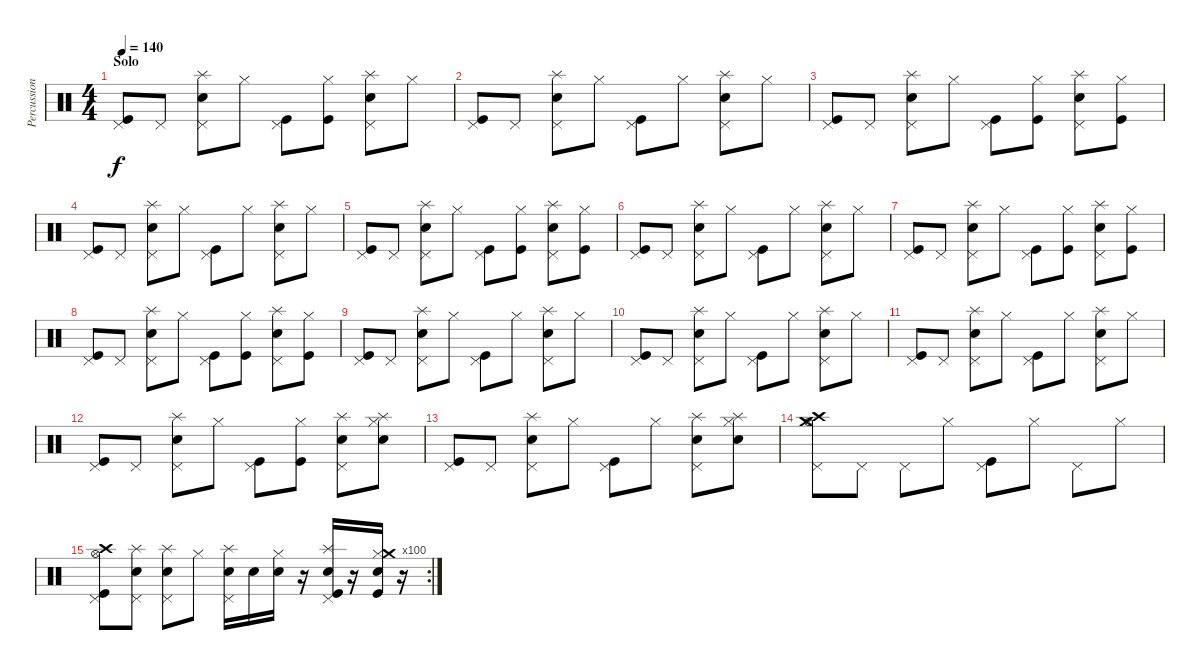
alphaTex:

\track ("Percussion" "Percussion") {instrument percussion}
\staff {score}
\articulation defaults
\ts (4 4)
\section ("" "Solo")
\tempo 140
\clef neutral
\ks c
("Pedal Hi-Hat (hit)" "Kick (hit)").8{dy f} "Pedal Hi-Hat (hit)".8 ("Pedal Hi-Hat (hit)" "Splash (hit)" "Electric Snare (hit)").8 "Hi-Hat (closed)".8 ("Pedal Hi-Hat (hit)" "Kick (hit)").8 ("Hi-Hat (closed)" "Kick (hit)").8 ("Pedal Hi-Hat (hit)" "Splash (hit)" "Electric Snare (hit)").8 "Hi-Hat (closed)".8 |
("Pedal Hi-Hat (hit)" "Kick (hit)").8 "Pedal Hi-Hat (hit)".8 ("Pedal Hi-Hat (hit)" "Splash (hit)" "Electric Snare (hit)").8 "Hi-Hat (closed)".8 ("Pedal Hi-Hat (hit)" "Kick (hit)").8 "Hi-Hat (closed)".8 ("Pedal Hi-Hat (hit)" "Splash (hit)" "Electric Snare (hit)").8 "Hi-Hat (closed)".8 |
("Pedal Hi-Hat (hit)" "Kick (hit)").8 "Pedal Hi-Hat (hit)".8 ("Pedal Hi-Hat (hit)" "Splash (hit)" "Electric Snare (hit)").8 "Hi-Hat (closed)".8 ("Pedal Hi-Hat (hit)" "Kick (hit)").8 ("Hi-Hat (closed)" "Kick (hit)").8 ("Pedal Hi-Hat (hit)" "Splash (hit)" "Electric Snare (hit)").8 ("Hi-Hat (closed)" "Kick (hit)").8 |
("Pedal Hi-Hat (hit)" "Kick (hit)").8 "Pedal Hi-Hat (hit)".8 ("Pedal Hi-Hat (hit)" "Splash (hit)" "Electric Snare (hit)").8 "Hi-Hat (closed)".8 ("Pedal Hi-Hat (hit)" "Kick (hit)").8 "Hi-Hat (closed)".8 ("Pedal Hi-Hat (hit)" "Splash (hit)" "Electric Snare (hit)").8 "Hi-Hat (closed)".8 |
("Pedal Hi-Hat (hit)" "Kick (hit)").8 "Pedal Hi-Hat (hit)".8 ("Pedal Hi-Hat (hit)" "Splash (hit)" "Electric Snare (hit)").8 "Hi-Hat (closed)".8 ("Pedal Hi-Hat (hit)" "Kick (hit)").8 ("Hi-Hat (closed)" "Kick (hit)").8 ("Pedal Hi-Hat (hit)" "Splash (hit)" "Electric Snare (hit)").8 ("Hi-Hat (closed)" "Kick (hit)").8 |
("Pedal Hi-Hat (hit)" "Kick (hit)").8 "Pedal Hi-Hat (hit)".8 ("Pedal Hi-Hat (hit)" "Splash (hit)" "Electric Snare (hit)").8 "Hi-Hat (closed)".8 ("Pedal Hi-Hat (hit)" "Kick (hit)").8 "Hi-Hat (closed)".8 ("Pedal Hi-Hat (hit)" "Splash (hit)" "Electric Snare (hit)").8 "Hi-Hat (closed)".8 |
("Pedal Hi-Hat (hit)" "Kick (hit)").8 "Pedal Hi-Hat (hit)".8 ("Pedal Hi-Hat (hit)" "Splash (hit)" "Electric Snare (hit)").8 "Hi-Hat (closed)".8 ("Pedal Hi-Hat (hit)" "Kick (hit)").8 ("Hi-Hat (closed)" "Kick (hit)").8 ("Pedal Hi-Hat (hit)" "Splash (hit)" "Electric Snare (hit)").8 ("Hi-Hat (closed)" "Kick (hit)").8 |
("Pedal Hi-Hat (hit)" "Kick (hit)").8 "Pedal Hi-Hat (hit)".8 ("Pedal Hi-Hat (hit)" "Splash (hit)" "Electric Snare (hit)").8 "Hi-Hat (closed)".8 ("Pedal Hi-Hat (hit)" "Kick (hit)").8 ("Hi-Hat (closed)" "Kick (hit)").8 ("Pedal Hi-Hat (hit)" "Splash (hit)" "Electric Snare (hit)").8 ("Hi-Hat (closed)" "Kick (hit)").8 |
("Pedal Hi-Hat (hit)" "Kick (hit)").8 "Pedal Hi-Hat (hit)".8 ("Pedal Hi-Hat (hit)" "Splash (hit)" "Electric Snare (hit)").8 "Hi-Hat (closed)".8 ("Pedal Hi-Hat (hit)" "Kick (hit)").8 "Hi-Hat (closed)".8 ("Pedal Hi-Hat (hit)" "Splash (hit)" "Electric Snare (hit)").8 "Hi-Hat (closed)".8 |
("Pedal Hi-Hat (hit)" "Kick (hit)").8 "Pedal Hi-Hat (hit)".8 ("Pedal Hi-Hat (hit)" "Splash (hit)" "Electric Snare (hit)").8 "Hi-Hat (closed)".8 ("Pedal Hi-Hat (hit)" "Kick (hit)").8 "Hi-Hat (closed)".8 ("Pedal Hi-Hat (hit)" "Splash (hit)" "Electric Snare (hit)").8 "Hi-Hat (closed)".8 |
("Pedal Hi-Hat (hit)" "Kick (hit)").8 "Pedal Hi-Hat (hit)".8 ("Pedal Hi-Hat (hit)" "Splash (hit)" "Electric Snare (hit)").8 "Hi-Hat (closed)".8 ("Pedal Hi-Hat (hit)" "Kick (hit)").8 "Hi-Hat (closed)".8 ("Pedal Hi-Hat (hit)" "Splash (hit)" "Electric Snare (hit)").8 "Hi-Hat (closed)".8 |
("Pedal Hi-Hat (hit)" "Kick (hit)").8 "Pedal Hi-Hat (hit)".8 ("Pedal Hi-Hat (hit)" "Splash (hit)" "Electric Snare (hit)").8 "Hi-Hat (closed)".8 ("Pedal Hi-Hat (hit)" "Kick (hit)").8 ("Hi-Hat (closed)" "Kick (hit)").8 ("Pedal Hi-Hat (hit)" "Splash (hit)" "Electric Snare (hit)").8 ("Hi-Hat (closed)" "Splash (hit)" "Electric Snare (hit)").8 |
("Pedal Hi-Hat (hit)" "Kick (hit)").8 "Pedal Hi-Hat (hit)".8 ("Pedal Hi-Hat (hit)" "Splash (hit)" "Electric Snare (hit)").8 "Hi-Hat (closed)".8 ("Pedal Hi-Hat (hit)" "Kick (hit)").8 "Hi-Hat (closed)".8 ("Pedal Hi-Hat (hit)" "Splash (hit)" "Electric Snare (hit)").8 ("Hi-Hat (closed)" "Splash (hit)" "Electric Snare (hit)").8 |
("Pedal Hi-Hat (hit)" "Hi-Hat (open)" "Crash high (hit)" "Crash medium (hit)").8 "Pedal Hi-Hat (hit)".8 "Pedal Hi-Hat (hit)".8 "Hi-Hat (closed)".8 ("Pedal Hi-Hat (hit)" "Kick (hit)").8 "Hi-Hat (closed)".8 "Pedal Hi-Hat (hit)".8 "Hi-Hat (closed)".8 |
\rc 100
("Pedal Hi-Hat (hit)" "Hi-Hat (open)" "Crash high (hit)" "Kick (hit)").8 ("Pedal Hi-Hat (hit)" "Splash (hit)" "Electric Snare (hit)").8 ("Pedal Hi-Hat (hit)" "Splash (hit)" "Electric Snare (hit)").8 "Hi-Hat (closed)".8 ("Pedal Hi-Hat (hit)" "Splash (hit)" "Electric Snare (hit)").16 "Snare (hit) 2".16 ("Hi-Hat (closed)" "Snare (hit) 2").16 r.16 ("Pedal Hi-Hat (hit)" "Splash (hit)" "Snare (hit) 2" "Kick (hit)").16 r.16 ("Hi-Hat (closed)" "Crash medium (hit)" "Snare (hit) 2" "Kick (hit)").16 r.16
